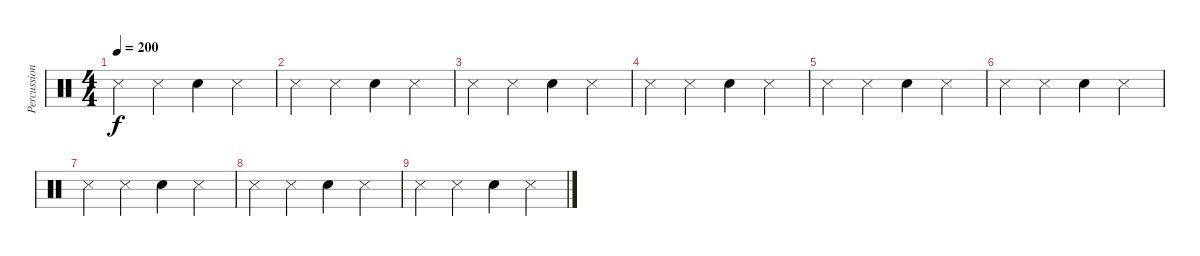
\track ("Percussion" "Percussion") {instrument percussion}
\staff {score}
\articulation defaults
\ts (4 4)
\tempo 200
\clef neutral
\ks c "Metronome (hit)".4{dy f} "Metronome (hit)".4 "Metronome (bell)".4 "Metronome (hit)".4
|
"Metronome (hit)".4 "Metronome (hit)".4 "Metronome (bell)".4 "Metronome (hit)".4 |
"Metronome (hit)".4 "Metronome (hit)".4 "Metronome (bell)".4 "Metronome (hit)".4 |
"Metronome (hit)".4 "Metronome (hit)".4 "Metronome (bell)".4 "Metronome (hit)".4 |
"Metronome (hit)".4 "Metronome (hit)".4 "Metronome (bell)".4 "Metronome (hit)".4 |
"Metronome (hit)".4 "Metronome (hit)".4 "Metronome (bell)".4 "Metronome (hit)".4 |
"Metronome (hit)".4 "Metronome (hit)".4 "Metronome (bell)".4 "Metronome (hit)".4 |
"Metronome (hit)".4 "Metronome (hit)".4 "Metronome (bell)".4 "Metronome (hit)".4 |
"Metronome (hit)".4 "Metronome (hit)".4 "Metronome (bell)".4 "Metronome (hit)".4
